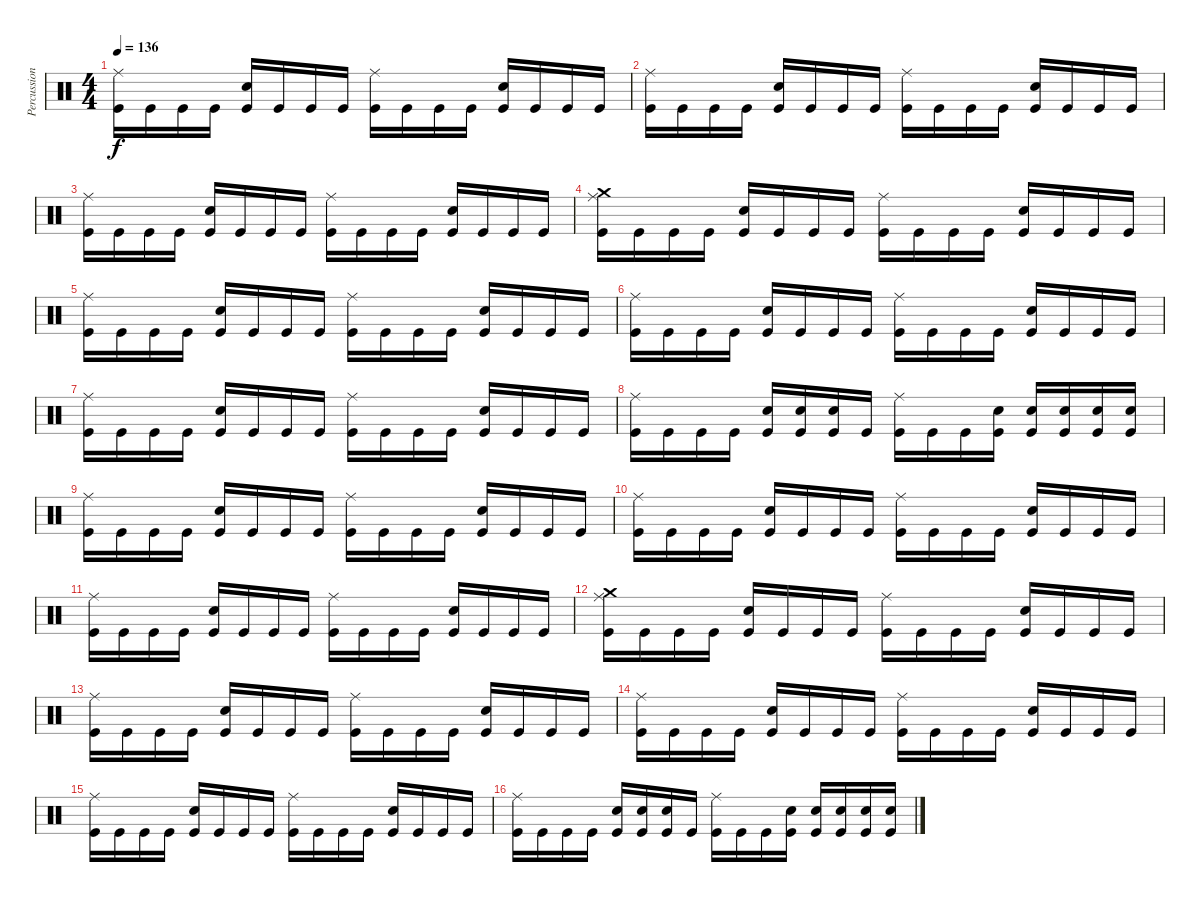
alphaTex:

\track ("Percussion IV" "Percussion") {instrument percussion}
\staff {score}
\articulation defaults
\ts (4 4)
\tempo 136
\clef neutral
\ks c
("Ride (middle)" "Kick (hit)").16{dy f} "Kick (hit)".16 "Kick (hit)".16 "Kick (hit)".16 ("Electric Snare (hit)" "Kick (hit)").16 "Kick (hit)".16 "Kick (hit)".16 "Kick (hit)".16 ("Ride (middle)" "Kick (hit)").16 "Kick (hit)".16 "Kick (hit)".16 "Kick (hit)".16 ("Electric Snare (hit)" "Kick (hit)").16 "Kick (hit)".16 "Kick (hit)".16 "Kick (hit)".16 |
("Ride (middle)" "Kick (hit)").16 "Kick (hit)".16 "Kick (hit)".16 "Kick (hit)".16 ("Electric Snare (hit)" "Kick (hit)").16 "Kick (hit)".16 "Kick (hit)".16 "Kick (hit)".16 ("Ride (middle)" "Kick (hit)").16 "Kick (hit)".16 "Kick (hit)".16 "Kick (hit)".16 ("Electric Snare (hit)" "Kick (hit)").16 "Kick (hit)".16 "Kick (hit)".16 "Kick (hit)".16 |
("Ride (middle)" "Kick (hit)").16 "Kick (hit)".16 "Kick (hit)".16 "Kick (hit)".16 ("Electric Snare (hit)" "Kick (hit)").16 "Kick (hit)".16 "Kick (hit)".16 "Kick (hit)".16 ("Ride (middle)" "Kick (hit)").16 "Kick (hit)".16 "Kick (hit)".16 "Kick (hit)".16 ("Electric Snare (hit)" "Kick (hit)").16 "Kick (hit)".16 "Kick (hit)".16 "Kick (hit)".16 |
("Crash medium (hit)" "Ride (middle)" "Kick (hit)").16 "Kick (hit)".16 "Kick (hit)".16 "Kick (hit)".16 ("Electric Snare (hit)" "Kick (hit)").16 "Kick (hit)".16 "Kick (hit)".16 "Kick (hit)".16 ("Ride (middle)" "Kick (hit)").16 "Kick (hit)".16 "Kick (hit)".16 "Kick (hit)".16 ("Electric Snare (hit)" "Kick (hit)").16 "Kick (hit)".16 "Kick (hit)".16 "Kick (hit)".16 |
("Ride (middle)" "Kick (hit)").16 "Kick (hit)".16 "Kick (hit)".16 "Kick (hit)".16 ("Electric Snare (hit)" "Kick (hit)").16 "Kick (hit)".16 "Kick (hit)".16 "Kick (hit)".16 ("Ride (middle)" "Kick (hit)").16 "Kick (hit)".16 "Kick (hit)".16 "Kick (hit)".16 ("Electric Snare (hit)" "Kick (hit)").16 "Kick (hit)".16 "Kick (hit)".16 "Kick (hit)".16 |
("Ride (middle)" "Kick (hit)").16 "Kick (hit)".16 "Kick (hit)".16 "Kick (hit)".16 ("Electric Snare (hit)" "Kick (hit)").16 "Kick (hit)".16 "Kick (hit)".16 "Kick (hit)".16 ("Ride (middle)" "Kick (hit)").16 "Kick (hit)".16 "Kick (hit)".16 "Kick (hit)".16 ("Electric Snare (hit)" "Kick (hit)").16 "Kick (hit)".16 "Kick (hit)".16 "Kick (hit)".16 |
("Ride (middle)" "Kick (hit)").16 "Kick (hit)".16 "Kick (hit)".16 "Kick (hit)".16 ("Electric Snare (hit)" "Kick (hit)").16 "Kick (hit)".16 "Kick (hit)".16 "Kick (hit)".16 ("Ride (middle)" "Kick (hit)").16 "Kick (hit)".16 "Kick (hit)".16 "Kick (hit)".16 ("Electric Snare (hit)" "Kick (hit)").16 "Kick (hit)".16 "Kick (hit)".16 "Kick (hit)".16 |
("Ride (middle)" "Kick (hit)").16 "Kick (hit)".16 "Kick (hit)".16 "Kick (hit)".16 ("Electric Snare (hit)" "Kick (hit)").16 ("Electric Snare (hit)" "Kick (hit)").16 ("Electric Snare (hit)" "Kick (hit)").16 "Kick (hit)".16 ("Ride (middle)" "Kick (hit)").16 "Kick (hit)".16 "Kick (hit)".16 ("Electric Snare (hit)" "Kick (hit)").16 ("Electric Snare (hit)" "Kick (hit)").16 ("Electric Snare (hit)" "Kick (hit)").16 ("Electric Snare (hit)" "Kick (hit)").16 ("Electric Snare (hit)" "Kick (hit)").16 |
("Ride (middle)" "Kick (hit)").16 "Kick (hit)".16 "Kick (hit)".16 "Kick (hit)".16 ("Electric Snare (hit)" "Kick (hit)").16 "Kick (hit)".16 "Kick (hit)".16 "Kick (hit)".16 ("Ride (middle)" "Kick (hit)").16 "Kick (hit)".16 "Kick (hit)".16 "Kick (hit)".16 ("Electric Snare (hit)" "Kick (hit)").16 "Kick (hit)".16 "Kick (hit)".16 "Kick (hit)".16 |
("Ride (middle)" "Kick (hit)").16 "Kick (hit)".16 "Kick (hit)".16 "Kick (hit)".16 ("Electric Snare (hit)" "Kick (hit)").16 "Kick (hit)".16 "Kick (hit)".16 "Kick (hit)".16 ("Ride (middle)" "Kick (hit)").16 "Kick (hit)".16 "Kick (hit)".16 "Kick (hit)".16 ("Electric Snare (hit)" "Kick (hit)").16 "Kick (hit)".16 "Kick (hit)".16 "Kick (hit)".16 |
("Ride (middle)" "Kick (hit)").16 "Kick (hit)".16 "Kick (hit)".16 "Kick (hit)".16 ("Electric Snare (hit)" "Kick (hit)").16 "Kick (hit)".16 "Kick (hit)".16 "Kick (hit)".16 ("Ride (middle)" "Kick (hit)").16 "Kick (hit)".16 "Kick (hit)".16 "Kick (hit)".16 ("Electric Snare (hit)" "Kick (hit)").16 "Kick (hit)".16 "Kick (hit)".16 "Kick (hit)".16 |
("Crash medium (hit)" "Ride (middle)" "Kick (hit)").16 "Kick (hit)".16 "Kick (hit)".16 "Kick (hit)".16 ("Electric Snare (hit)" "Kick (hit)").16 "Kick (hit)".16 "Kick (hit)".16 "Kick (hit)".16 ("Ride (middle)" "Kick (hit)").16 "Kick (hit)".16 "Kick (hit)".16 "Kick (hit)".16 ("Electric Snare (hit)" "Kick (hit)").16 "Kick (hit)".16 "Kick (hit)".16 "Kick (hit)".16 |
("Ride (middle)" "Kick (hit)").16 "Kick (hit)".16 "Kick (hit)".16 "Kick (hit)".16 ("Electric Snare (hit)" "Kick (hit)").16 "Kick (hit)".16 "Kick (hit)".16 "Kick (hit)".16 ("Ride (middle)" "Kick (hit)").16 "Kick (hit)".16 "Kick (hit)".16 "Kick (hit)".16 ("Electric Snare (hit)" "Kick (hit)").16 "Kick (hit)".16 "Kick (hit)".16 "Kick (hit)".16 |
("Ride (middle)" "Kick (hit)").16 "Kick (hit)".16 "Kick (hit)".16 "Kick (hit)".16 ("Electric Snare (hit)" "Kick (hit)").16 "Kick (hit)".16 "Kick (hit)".16 "Kick (hit)".16 ("Ride (middle)" "Kick (hit)").16 "Kick (hit)".16 "Kick (hit)".16 "Kick (hit)".16 ("Electric Snare (hit)" "Kick (hit)").16 "Kick (hit)".16 "Kick (hit)".16 "Kick (hit)".16 |
("Ride (middle)" "Kick (hit)").16 "Kick (hit)".16 "Kick (hit)".16 "Kick (hit)".16 ("Electric Snare (hit)" "Kick (hit)").16 "Kick (hit)".16 "Kick (hit)".16 "Kick (hit)".16 ("Ride (middle)" "Kick (hit)").16 "Kick (hit)".16 "Kick (hit)".16 "Kick (hit)".16 ("Electric Snare (hit)" "Kick (hit)").16 "Kick (hit)".16 "Kick (hit)".16 "Kick (hit)".16 |
("Ride (middle)" "Kick (hit)").16 "Kick (hit)".16 "Kick (hit)".16 "Kick (hit)".16 ("Electric Snare (hit)" "Kick (hit)").16 ("Electric Snare (hit)" "Kick (hit)").16 ("Electric Snare (hit)" "Kick (hit)").16 "Kick (hit)".16 ("Ride (middle)" "Kick (hit)").16 "Kick (hit)".16 "Kick (hit)".16 ("Electric Snare (hit)" "Kick (hit)").16 ("Electric Snare (hit)" "Kick (hit)").16 ("Electric Snare (hit)" "Kick (hit)").16 ("Electric Snare (hit)" "Kick (hit)").16 ("Electric Snare (hit)" "Kick (hit)").16
